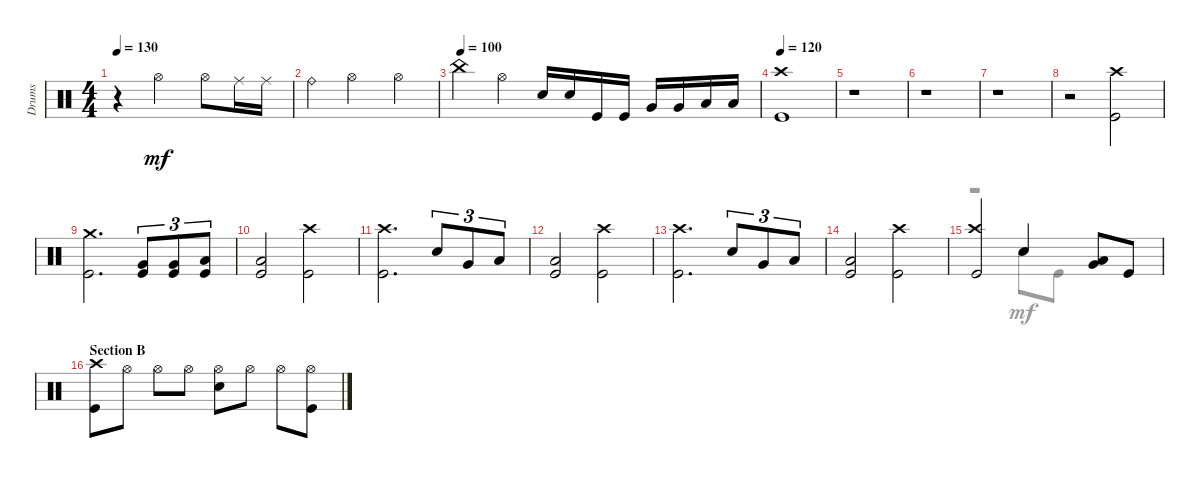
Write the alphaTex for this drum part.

\track ("Drums" "Drums") {instrument percussion}
\staff {score}
\articulation defaults
\voice
\ts (4 4)
\tempo 130
\clef neutral
\ks aminor
r.4{dy mf} "Hi-Hat (open)".2 "Hi-Hat (open)".8 "Ride (middle)".16 "Ride (middle)".16 |
"Ride (bell)".4 "Hi-Hat (open)".2 "Hi-Hat (open)".4 |
\tempo (100)
"China (hit)".4 "Hi-Hat (open)".4 "Snare (hit) 2".16 "Snare (hit) 2".16 "Kick (hit)".16 "Kick (hit)".16 "Very Low Tom (hit)".16 "Very Low Tom (hit)".16 "Low Floor Tom (hit)".16 "Low Floor Tom (hit)".16 |
\tempo 120
("Kick (hit)" "Crash high (hit)").1 |
r.1 |
r.1 |
r.1 |
r.2 ("Kick (hit)" "Crash high (hit)").2 |
("Kick (hit)" "Crash medium (hit)").2{d} ("Kick (hit)" "Very Low Tom (hit)").8{tu (3 2)} ("Kick (hit)" "Very Low Tom (hit)").8{tu (3 2)} ("Kick (hit)" "Low Floor Tom (hit)").8{tu (3 2)} |
("Kick (hit)" "Low Floor Tom (hit)").2 ("Kick (hit)" "Crash high (hit)").2 |
("Kick (hit)" "Crash high (hit)").2{d} "Snare (hit) 2".8{tu (3 2)} "Very Low Tom (hit)".8{tu (3 2)} "Low Floor Tom (hit)".8{tu (3 2)} |
("Kick (hit)" "Low Floor Tom (hit)").2 ("Kick (hit)" "Crash high (hit)").2 |
("Kick (hit)" "Crash high (hit)").2{d} "Snare (hit) 2".8{tu (3 2)} "Very Low Tom (hit)".8{tu (3 2)} "Low Floor Tom (hit)".8{tu (3 2)} |
("Kick (hit)" "Low Floor Tom (hit)").2 ("Kick (hit)" "Crash high (hit)").2 |
("Kick (hit)" "Crash high (hit)").2 "Snare (hit) 2".4 ("Very Low Tom (hit)" "Low Floor Tom (hit)").8 "Kick (hit)".8 |
\section ("" "Section B")
("Kick (hit)" "Crash high (hit)").8 "Hi-Hat (open)".8 "Hi-Hat (open)".8 "Hi-Hat (open)".8 ("Snare (hit) 2" "Hi-Hat (open)").8 "Hi-Hat (open)".8 "Hi-Hat (open)".8 ("Hi-Hat (open)" "Kick (hit)").8
\voice
\clef neutral
\ottava regular
\simile none
\ks aminor
|
|
|
|
|
|
|
|
|
|
|
|
|
|
r.2 "Snare (hit) 2".8 "Kick (hit)".8 |
